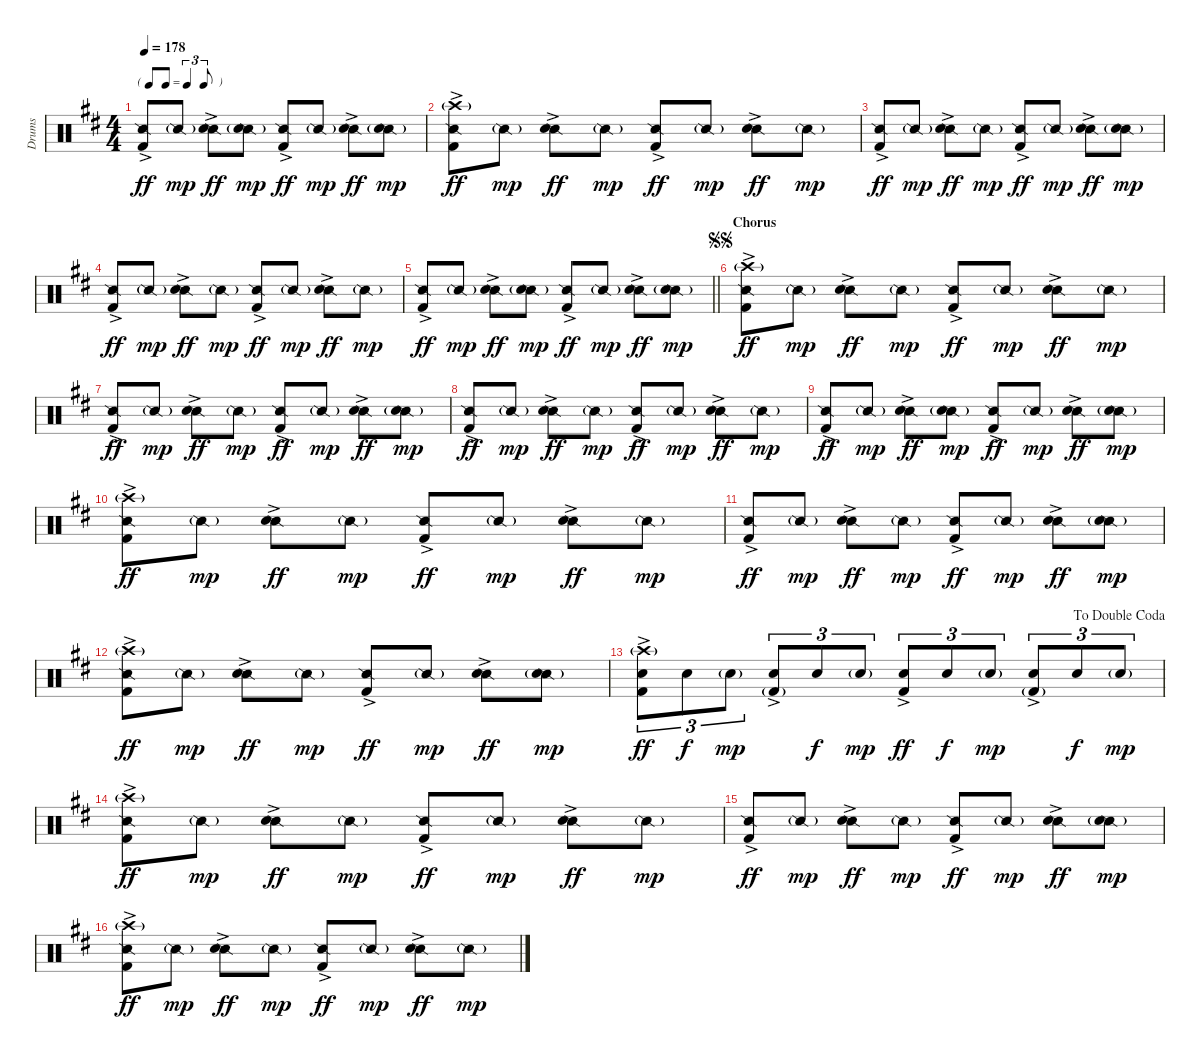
\track ("Drums" "Drums") {instrument percussion}
\staff {score}
\articulation defaults
\ts (4 4)
\tf triplet8th
\tempo 178
\clef neutral
\ks d
("Snare (side stick) 2" "Kick (hit) 2"{ac}).8{dy ff} "Snare (side stick) 2"{g}.8{dy mp} ("Snare (side stick) 2" "Snare (hit) 2"{ac}).8{dy ff} ("Snare (side stick) 2"{g} "Snare (hit) 2").8{dy mp} ("Snare (side stick) 2" "Kick (hit) 2"{ac}).8{dy ff} "Snare (side stick) 2"{g}.8{dy mp} ("Snare (side stick) 2" "Snare (hit) 2"{ac}).8{dy ff} ("Snare (side stick) 2"{g} "Snare (hit) 2").8{dy mp} |
("Snare (side stick) 2" "Crash high (hit)"{g} "Kick (hit) 2"{ac}).8{dy ff} "Snare (side stick) 2"{g}.8{dy mp} ("Snare (side stick) 2" "Snare (hit) 2"{ac}).8{dy ff} "Snare (side stick) 2"{g}.8{dy mp} ("Snare (side stick) 2" "Kick (hit) 2"{ac}).8{dy ff} "Snare (side stick) 2"{g}.8{dy mp} ("Snare (side stick) 2" "Snare (hit) 2"{ac}).8{dy ff} "Snare (side stick) 2"{g}.8{dy mp} |
("Snare (side stick) 2" "Kick (hit) 2"{ac}).8{dy ff} "Snare (side stick) 2"{g}.8{dy mp} ("Snare (side stick) 2" "Snare (hit) 2"{ac}).8{dy ff} "Snare (side stick) 2"{g}.8{dy mp} ("Snare (side stick) 2" "Kick (hit) 2"{ac}).8{dy ff} "Snare (side stick) 2"{g}.8{dy mp} ("Snare (side stick) 2" "Snare (hit) 2"{ac}).8{dy ff} ("Snare (side stick) 2"{g} "Snare (hit) 2").8{dy mp} |
("Snare (side stick) 2" "Kick (hit) 2"{ac}).8{dy ff} "Snare (side stick) 2"{g}.8{dy mp} ("Snare (side stick) 2" "Snare (hit) 2"{ac}).8{dy ff} "Snare (side stick) 2"{g}.8{dy mp} ("Snare (side stick) 2" "Kick (hit) 2"{ac}).8{dy ff} "Snare (side stick) 2"{g}.8{dy mp} ("Snare (side stick) 2" "Snare (hit) 2"{ac}).8{dy ff} "Snare (side stick) 2"{g}.8{dy mp} |
\barLineRight lightlight
("Snare (side stick) 2" "Kick (hit) 2"{ac}).8{dy ff} "Snare (side stick) 2"{g}.8{dy mp} ("Snare (side stick) 2" "Snare (hit) 2"{ac}).8{dy ff} ("Snare (side stick) 2"{g} "Snare (hit) 2").8{dy mp} ("Snare (side stick) 2" "Kick (hit) 2"{ac}).8{dy ff} "Snare (side stick) 2"{g}.8{dy mp} ("Snare (side stick) 2" "Snare (hit) 2"{ac}).8{dy ff} ("Snare (side stick) 2"{g} "Snare (hit) 2").8{dy mp} |
\section ("" "Chorus")
\jump segnosegno
("Snare (side stick) 2" "Crash high (hit)"{g} "Kick (hit) 2"{ac}).8{dy ff} "Snare (side stick) 2"{g}.8{dy mp} ("Snare (side stick) 2" "Snare (hit) 2"{ac}).8{dy ff} "Snare (side stick) 2"{g}.8{dy mp} ("Snare (side stick) 2" "Kick (hit) 2"{ac}).8{dy ff} "Snare (side stick) 2"{g}.8{dy mp} ("Snare (side stick) 2" "Snare (hit) 2"{ac}).8{dy ff} "Snare (side stick) 2"{g}.8{dy mp} |
("Snare (side stick) 2" "Kick (hit) 2"{ac}).8{dy ff} "Snare (side stick) 2"{g}.8{dy mp} ("Snare (side stick) 2" "Snare (hit) 2"{ac}).8{dy ff} "Snare (side stick) 2"{g}.8{dy mp} ("Snare (side stick) 2" "Kick (hit) 2"{ac}).8{dy ff} "Snare (side stick) 2"{g}.8{dy mp} ("Snare (side stick) 2" "Snare (hit) 2"{ac}).8{dy ff} ("Snare (side stick) 2"{g} "Snare (hit) 2").8{dy mp} |
("Snare (side stick) 2" "Kick (hit) 2"{ac}).8{dy ff} "Snare (side stick) 2"{g}.8{dy mp} ("Snare (side stick) 2" "Snare (hit) 2"{ac}).8{dy ff} "Snare (side stick) 2"{g}.8{dy mp} ("Snare (side stick) 2" "Kick (hit) 2"{ac}).8{dy ff} "Snare (side stick) 2"{g}.8{dy mp} ("Snare (side stick) 2" "Snare (hit) 2"{ac}).8{dy ff} "Snare (side stick) 2"{g}.8{dy mp} |
("Snare (side stick) 2" "Kick (hit) 2"{ac}).8{dy ff} "Snare (side stick) 2"{g}.8{dy mp} ("Snare (side stick) 2" "Snare (hit) 2"{ac}).8{dy ff} ("Snare (side stick) 2"{g} "Snare (hit) 2").8{dy mp} ("Snare (side stick) 2" "Kick (hit) 2"{ac}).8{dy ff} "Snare (side stick) 2"{g}.8{dy mp} ("Snare (side stick) 2" "Snare (hit) 2"{ac}).8{dy ff} ("Snare (side stick) 2"{g} "Snare (hit) 2").8{dy mp} |
("Snare (side stick) 2" "Crash high (hit)"{g} "Kick (hit) 2"{ac}).8{dy ff} "Snare (side stick) 2"{g}.8{dy mp} ("Snare (side stick) 2" "Snare (hit) 2"{ac}).8{dy ff} "Snare (side stick) 2"{g}.8{dy mp} ("Snare (side stick) 2" "Kick (hit) 2"{ac}).8{dy ff} "Snare (side stick) 2"{g}.8{dy mp} ("Snare (side stick) 2" "Snare (hit) 2"{ac}).8{dy ff} "Snare (side stick) 2"{g}.8{dy mp} |
("Snare (side stick) 2" "Kick (hit) 2"{ac}).8{dy ff} "Snare (side stick) 2"{g}.8{dy mp} ("Snare (side stick) 2" "Snare (hit) 2"{ac}).8{dy ff} "Snare (side stick) 2"{g}.8{dy mp} ("Snare (side stick) 2" "Kick (hit) 2"{ac}).8{dy ff} "Snare (side stick) 2"{g}.8{dy mp} ("Snare (side stick) 2" "Snare (hit) 2"{ac}).8{dy ff} ("Snare (side stick) 2"{g} "Snare (hit) 2").8{dy mp} |
("Snare (side stick) 2" "Crash high (hit)"{g} "Kick (hit) 2"{ac}).8{dy ff} "Snare (side stick) 2"{g}.8{dy mp} ("Snare (side stick) 2" "Snare (hit) 2"{ac}).8{dy ff} "Snare (side stick) 2"{g}.8{dy mp} ("Snare (side stick) 2" "Kick (hit) 2"{ac}).8{dy ff} "Snare (side stick) 2"{g}.8{dy mp} ("Snare (side stick) 2" "Snare (hit) 2"{ac}).8{dy ff} ("Snare (side stick) 2"{g} "Snare (hit) 2").8{dy mp} |
\jump dadoublecoda
("Crash high (hit)"{g} "Snare (hit) 2" "Kick (hit) 2"{ac}).8{tu (3 2) dy ff} "Snare (hit) 2".8{tu (3 2) dy f} "Snare (hit) 2"{g}.8{tu (3 2) dy mp} ("Snare (hit) 2"{ac} "Kick (hit) 2"{g}).8{tu (3 2)} "Snare (hit) 2".8{tu (3 2) dy f} "Snare (hit) 2"{g}.8{tu (3 2) dy mp} ("Snare (hit) 2" "Kick (hit) 2"{ac}).8{tu (3 2) dy ff} "Snare (hit) 2".8{tu (3 2) dy f} "Snare (hit) 2"{g}.8{tu (3 2) dy mp} ("Snare (hit) 2"{ac} "Kick (hit) 2"{g}).8{tu (3 2)} "Snare (hit) 2".8{tu (3 2) dy f} "Snare (hit) 2"{g}.8{tu (3 2) dy mp} |
("Snare (side stick) 2" "Crash high (hit)"{g} "Kick (hit) 2"{ac}).8{dy ff} "Snare (side stick) 2"{g}.8{dy mp} ("Snare (side stick) 2" "Snare (hit) 2"{ac}).8{dy ff} "Snare (side stick) 2"{g}.8{dy mp} ("Snare (side stick) 2" "Kick (hit) 2"{ac}).8{dy ff} "Snare (side stick) 2"{g}.8{dy mp} ("Snare (side stick) 2" "Snare (hit) 2"{ac}).8{dy ff} "Snare (side stick) 2"{g}.8{dy mp} |
("Snare (side stick) 2" "Kick (hit) 2"{ac}).8{dy ff} "Snare (side stick) 2"{g}.8{dy mp} ("Snare (side stick) 2" "Snare (hit) 2"{ac}).8{dy ff} "Snare (side stick) 2"{g}.8{dy mp} ("Snare (side stick) 2" "Kick (hit) 2"{ac}).8{dy ff} "Snare (side stick) 2"{g}.8{dy mp} ("Snare (side stick) 2" "Snare (hit) 2"{ac}).8{dy ff} ("Snare (side stick) 2"{g} "Snare (hit) 2").8{dy mp} |
("Snare (side stick) 2" "Crash high (hit)"{g} "Kick (hit) 2"{ac}).8{dy ff} "Snare (side stick) 2"{g}.8{dy mp} ("Snare (side stick) 2" "Snare (hit) 2"{ac}).8{dy ff} "Snare (side stick) 2"{g}.8{dy mp} ("Snare (side stick) 2" "Kick (hit) 2"{ac}).8{dy ff} "Snare (side stick) 2"{g}.8{dy mp} ("Snare (side stick) 2" "Snare (hit) 2"{ac}).8{dy ff} "Snare (side stick) 2"{g}.8{dy mp}
